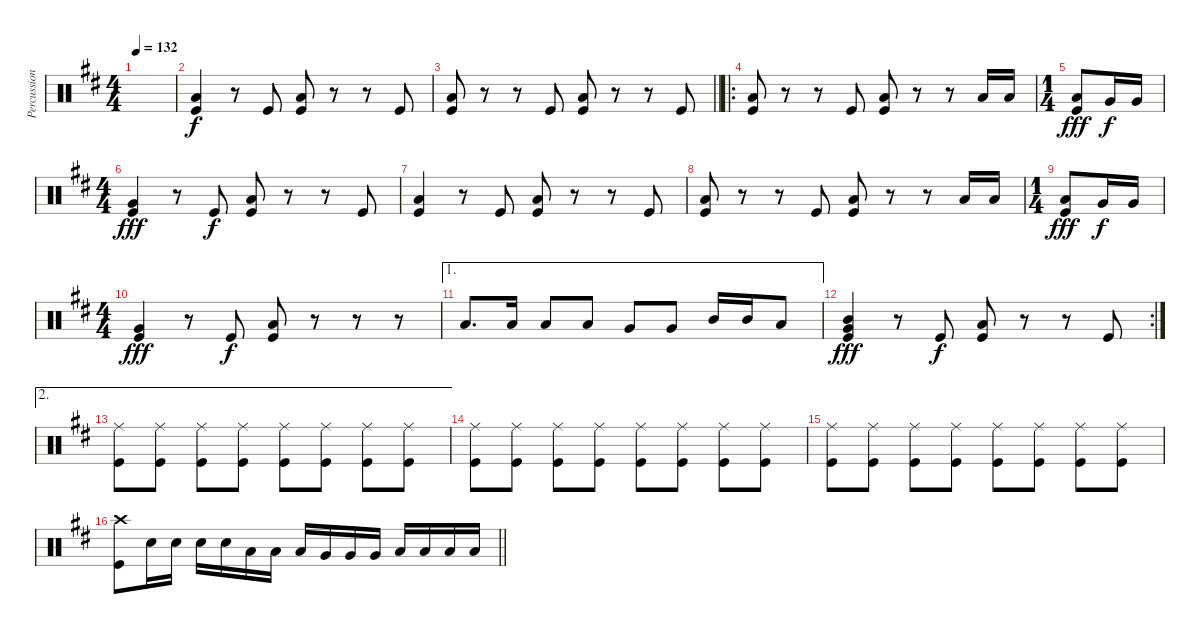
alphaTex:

\track ("Percussion" "Percussion") {instrument percussion}
\staff {score}
\articulation defaults
\ts (4 4)
\tempo 132
\clef neutral
\ks d
|
("Low Floor Tom (hit)" "Kick (hit)").4 r.8 "Kick (hit)".8 ("Low Floor Tom (hit)" "Kick (hit)").8 r.8 r.8 "Kick (hit)".8 |
\barLineRight lightlight
("Low Floor Tom (hit)" "Kick (hit)").8 r.8 r.8 "Kick (hit)".8 ("Low Floor Tom (hit)" "Kick (hit)").8 r.8 r.8 "Kick (hit)".8 |
\ro
("Low Floor Tom (hit)" "Kick (hit)").8 r.8 r.8 "Kick (hit)".8 ("Low Floor Tom (hit)" "Kick (hit)").8 r.8 r.8 "Low Tom (hit)".16 "Low Tom (hit)".16 |
\ts (1 4)
("Low Tom (hit)" "Kick (hit)").8{dy fff} "Very Low Tom (hit)".16{dy f} "Very Low Tom (hit)".16 |
\ts (4 4)
("Very Low Tom (hit)" "Kick (hit)").4{dy fff} r.8 "Kick (hit)".8{dy f} ("Low Floor Tom (hit)" "Kick (hit)").8 r.8 r.8 "Kick (hit)".8 |
("Low Floor Tom (hit)" "Kick (hit)").4 r.8 "Kick (hit)".8 ("Low Floor Tom (hit)" "Kick (hit)").8 r.8 r.8 "Kick (hit)".8 |
("Low Floor Tom (hit)" "Kick (hit)").8 r.8 r.8 "Kick (hit)".8 ("Low Floor Tom (hit)" "Kick (hit)").8 r.8 r.8 "Low Tom (hit)".16 "Low Tom (hit)".16 |
\ts (1 4)
("Low Tom (hit)" "Kick (hit)").8{dy fff} "Very Low Tom (hit)".16{dy f} "Very Low Tom (hit)".16 |
\ts (4 4)
("Very Low Tom (hit)" "Kick (hit)").4{dy fff} r.8 "Kick (hit)".8{dy f} ("Low Floor Tom (hit)" "Kick (hit)").8 r.8 r.8 r.8 |
\ae 1 "Low Tom (hit)".8{d} "Low Tom (hit)".16 "Low Tom (hit)".8 "Low Tom (hit)".8 "Very Low Tom (hit)".8 "Very Low Tom (hit)".8 "Mid Tom (hit)".16 "Mid Tom (hit)".16 "Low Floor Tom (hit)".8
|
\rc 2
("Mid Tom (hit)" "Very Low Tom (hit)" "Kick (hit)").4{dy fff} r.8 "Kick (hit)".8{dy f} ("Low Floor Tom (hit)" "Kick (hit)").8 r.8 r.8 "Kick (hit)".8 |
\ae 2
("Ride (middle)" "Kick (hit)").8{volume 10} ("Ride (middle)" "Kick (hit)").8 ("Ride (middle)" "Kick (hit)").8{volume 15} ("Ride (middle)" "Kick (hit)").8 ("Ride (middle)" "Kick (hit)").8 ("Ride (middle)" "Kick (hit)").8 ("Ride (middle)" "Kick (hit)").8 ("Ride (middle)" "Kick (hit)").8 |
("Ride (middle)" "Kick (hit)").8 ("Ride (middle)" "Kick (hit)").8 ("Ride (middle)" "Kick (hit)").8 ("Ride (middle)" "Kick (hit)").8 ("Ride (middle)" "Kick (hit)").8 ("Ride (middle)" "Kick (hit)").8 ("Ride (middle)" "Kick (hit)").8 ("Ride (middle)" "Kick (hit)").8 |
("Ride (middle)" "Kick (hit)").8 ("Ride (middle)" "Kick (hit)").8 ("Ride (middle)" "Kick (hit)").8 ("Ride (middle)" "Kick (hit)").8 ("Ride (middle)" "Kick (hit)").8 ("Ride (middle)" "Kick (hit)").8 ("Ride (middle)" "Kick (hit)").8 ("Ride (middle)" "Kick (hit)").8 |
\barLineRight lightlight
("Crash high (hit)" "Kick (hit)").8 "Snare (hit) 2".16 "Snare (hit) 2".16 "Snare (hit) 2".16 "Snare (hit) 2".16 "Low Tom (hit)".16 "Low Tom (hit)".16 "Low Tom (hit)".16 "Very Low Tom (hit)".16 "Very Low Tom (hit)".16 "Very Low Tom (hit)".16 "Low Floor Tom (hit)".16 "Low Floor Tom (hit)".16 "Low Floor Tom (hit)".16 "Low Floor Tom (hit)".16
